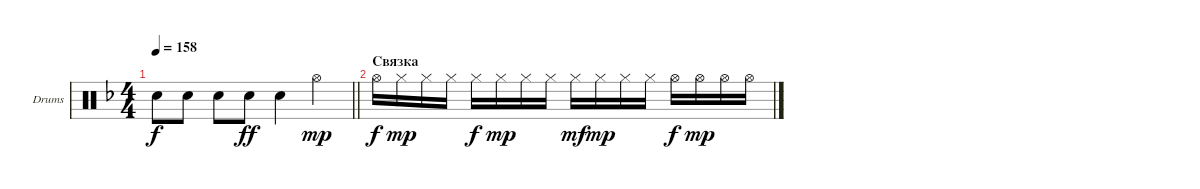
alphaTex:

\bracketExtendMode groupsimilarinstruments
\firstSystemTrackNameOrientation horizontal
\otherSystemsTrackNameOrientation horizontal
\track ("Максим Удалов" "Drums") {instrument percussion}
\staff {score}
\articulation defaults
\ts (4 4)
\tempo 158
\clef neutral
\barLineRight lightlight
\ks dminor "Snare (hit) 2".8{dy f} "Snare (hit) 2".8 "Snare (hit) 2".8 "Snare (hit) 2".8{dy ff} "Snare (hit) 2".4 "Hi-Hat (open)".4{dy mp}
|
\section ("" "Связка")
"Hi-Hat (open)".16{dy f} "Hi-Hat (closed)".16{dy mp} "Hi-Hat (closed)".16 "Hi-Hat (closed)".16 "Hi-Hat (closed)".16{dy f} "Hi-Hat (closed)".16{dy mp} "Hi-Hat (closed)".16 "Hi-Hat (closed)".16 "Hi-Hat (closed)".16{dy mf} "Hi-Hat (closed)".16{dy mp} "Hi-Hat (closed)".16 "Hi-Hat (closed)".16 "Hi-Hat (open)".16{dy f} "Hi-Hat (open)".16{dy mp} "Hi-Hat (open)".16 "Hi-Hat (open)".16
